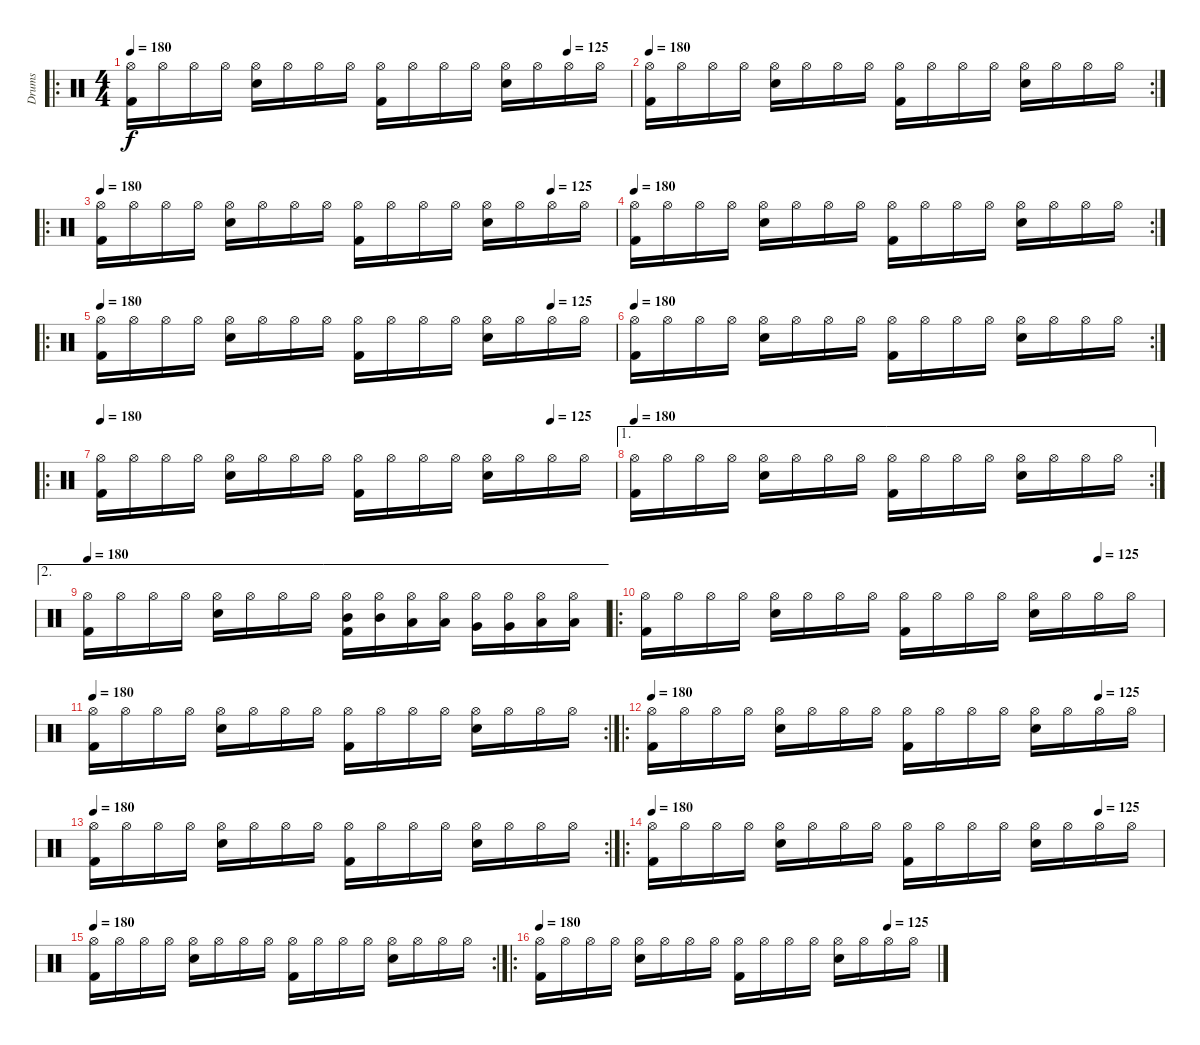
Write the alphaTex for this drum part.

\track ("Drums" "Drums") {instrument percussion}
\staff {score}
\articulation defaults
\ro
\ts (4 4)
\tempo 180
\tempo (125 0.875)
\clef neutral
\ks c
("Hi-Hat (open)" "Kick (hit) 2").16{dy f} "Hi-Hat (open)".16 "Hi-Hat (open)".16 "Hi-Hat (open)".16 ("Hi-Hat (open)" "Snare (hit) 2").16 "Hi-Hat (open)".16 "Hi-Hat (open)".16 "Hi-Hat (open)".16 ("Hi-Hat (open)" "Kick (hit) 2").16 "Hi-Hat (open)".16 "Hi-Hat (open)".16 "Hi-Hat (open)".16 ("Hi-Hat (open)" "Snare (hit) 2").16 "Hi-Hat (open)".16 "Hi-Hat (open)".16 "Hi-Hat (open)".16 |
\rc 2
\tempo 180
("Hi-Hat (open)" "Kick (hit) 2").16 "Hi-Hat (open)".16 "Hi-Hat (open)".16 "Hi-Hat (open)".16 ("Hi-Hat (open)" "Snare (hit) 2").16 "Hi-Hat (open)".16 "Hi-Hat (open)".16 "Hi-Hat (open)".16 ("Hi-Hat (open)" "Kick (hit) 2").16 "Hi-Hat (open)".16 "Hi-Hat (open)".16 "Hi-Hat (open)".16 ("Hi-Hat (open)" "Snare (hit) 2").16 "Hi-Hat (open)".16 "Hi-Hat (open)".16 "Hi-Hat (open)".16 |
\ro
\tempo 180
\tempo (125 0.875)
("Hi-Hat (open)" "Kick (hit) 2").16 "Hi-Hat (open)".16 "Hi-Hat (open)".16 "Hi-Hat (open)".16 ("Hi-Hat (open)" "Snare (hit) 2").16 "Hi-Hat (open)".16 "Hi-Hat (open)".16 "Hi-Hat (open)".16 ("Hi-Hat (open)" "Kick (hit) 2").16 "Hi-Hat (open)".16 "Hi-Hat (open)".16 "Hi-Hat (open)".16 ("Hi-Hat (open)" "Snare (hit) 2").16 "Hi-Hat (open)".16 "Hi-Hat (open)".16 "Hi-Hat (open)".16 |
\rc 2
\tempo 180
("Hi-Hat (open)" "Kick (hit) 2").16 "Hi-Hat (open)".16 "Hi-Hat (open)".16 "Hi-Hat (open)".16 ("Hi-Hat (open)" "Snare (hit) 2").16 "Hi-Hat (open)".16 "Hi-Hat (open)".16 "Hi-Hat (open)".16 ("Hi-Hat (open)" "Kick (hit) 2").16 "Hi-Hat (open)".16 "Hi-Hat (open)".16 "Hi-Hat (open)".16 ("Hi-Hat (open)" "Snare (hit) 2").16 "Hi-Hat (open)".16 "Hi-Hat (open)".16 "Hi-Hat (open)".16 |
\ro
\tempo 180
\tempo (125 0.875)
("Hi-Hat (open)" "Kick (hit) 2").16 "Hi-Hat (open)".16 "Hi-Hat (open)".16 "Hi-Hat (open)".16 ("Hi-Hat (open)" "Snare (hit) 2").16 "Hi-Hat (open)".16 "Hi-Hat (open)".16 "Hi-Hat (open)".16 ("Hi-Hat (open)" "Kick (hit) 2").16 "Hi-Hat (open)".16 "Hi-Hat (open)".16 "Hi-Hat (open)".16 ("Hi-Hat (open)" "Snare (hit) 2").16 "Hi-Hat (open)".16 "Hi-Hat (open)".16 "Hi-Hat (open)".16 |
\rc 2
\tempo 180
("Hi-Hat (open)" "Kick (hit) 2").16 "Hi-Hat (open)".16 "Hi-Hat (open)".16 "Hi-Hat (open)".16 ("Hi-Hat (open)" "Snare (hit) 2").16 "Hi-Hat (open)".16 "Hi-Hat (open)".16 "Hi-Hat (open)".16 ("Hi-Hat (open)" "Kick (hit) 2").16 "Hi-Hat (open)".16 "Hi-Hat (open)".16 "Hi-Hat (open)".16 ("Hi-Hat (open)" "Snare (hit) 2").16 "Hi-Hat (open)".16 "Hi-Hat (open)".16 "Hi-Hat (open)".16 |
\ro
\tempo 180
\tempo (125 0.875)
("Hi-Hat (open)" "Kick (hit) 2").16 "Hi-Hat (open)".16 "Hi-Hat (open)".16 "Hi-Hat (open)".16 ("Hi-Hat (open)" "Snare (hit) 2").16 "Hi-Hat (open)".16 "Hi-Hat (open)".16 "Hi-Hat (open)".16 ("Hi-Hat (open)" "Kick (hit) 2").16 "Hi-Hat (open)".16 "Hi-Hat (open)".16 "Hi-Hat (open)".16 ("Hi-Hat (open)" "Snare (hit) 2").16 "Hi-Hat (open)".16 "Hi-Hat (open)".16 "Hi-Hat (open)".16 |
\ae 1
\rc 2
\tempo 180
("Hi-Hat (open)" "Kick (hit) 2").16 "Hi-Hat (open)".16 "Hi-Hat (open)".16 "Hi-Hat (open)".16 ("Hi-Hat (open)" "Snare (hit) 2").16 "Hi-Hat (open)".16 "Hi-Hat (open)".16 "Hi-Hat (open)".16 ("Hi-Hat (open)" "Kick (hit) 2").16 "Hi-Hat (open)".16 "Hi-Hat (open)".16 "Hi-Hat (open)".16 ("Hi-Hat (open)" "Snare (hit) 2").16 "Hi-Hat (open)".16 "Hi-Hat (open)".16 "Hi-Hat (open)".16 |
\ae 2
\tempo 180
("Hi-Hat (open)" "Kick (hit) 2").16 "Hi-Hat (open)".16 "Hi-Hat (open)".16 "Hi-Hat (open)".16 ("Hi-Hat (open)" "Snare (hit) 2").16 "Hi-Hat (open)".16 "Hi-Hat (open)".16 "Hi-Hat (open)".16 ("Hi-Hat (open)" "Mid Tom (hit)" "Kick (hit) 2").16 ("Hi-Hat (open)" "Mid Tom (hit)").16 ("Hi-Hat (open)" "Low Tom (hit)").16 ("Hi-Hat (open)" "Low Tom (hit)").16 ("Hi-Hat (open)" "Very Low Tom (hit)").16 ("Hi-Hat (open)" "Very Low Tom (hit)").16 ("Hi-Hat (open)" "Low Floor Tom (hit)").16 ("Hi-Hat (open)" "Low Floor Tom (hit)").16 |
\ro
\tempo (125 0.875)
("Hi-Hat (open)" "Kick (hit) 2").16 "Hi-Hat (open)".16 "Hi-Hat (open)".16 "Hi-Hat (open)".16 ("Hi-Hat (open)" "Snare (hit) 2").16 "Hi-Hat (open)".16 "Hi-Hat (open)".16 "Hi-Hat (open)".16 ("Hi-Hat (open)" "Kick (hit) 2").16 "Hi-Hat (open)".16 "Hi-Hat (open)".16 "Hi-Hat (open)".16 ("Hi-Hat (open)" "Snare (hit) 2").16 "Hi-Hat (open)".16 "Hi-Hat (open)".16 "Hi-Hat (open)".16 |
\rc 2
\tempo 180
("Hi-Hat (open)" "Kick (hit) 2").16 "Hi-Hat (open)".16 "Hi-Hat (open)".16 "Hi-Hat (open)".16 ("Hi-Hat (open)" "Snare (hit) 2").16 "Hi-Hat (open)".16 "Hi-Hat (open)".16 "Hi-Hat (open)".16 ("Hi-Hat (open)" "Kick (hit) 2").16 "Hi-Hat (open)".16 "Hi-Hat (open)".16 "Hi-Hat (open)".16 ("Hi-Hat (open)" "Snare (hit) 2").16 "Hi-Hat (open)".16 "Hi-Hat (open)".16 "Hi-Hat (open)".16 |
\ro
\tempo 180
\tempo (125 0.875)
("Hi-Hat (open)" "Kick (hit) 2").16 "Hi-Hat (open)".16 "Hi-Hat (open)".16 "Hi-Hat (open)".16 ("Hi-Hat (open)" "Snare (hit) 2").16 "Hi-Hat (open)".16 "Hi-Hat (open)".16 "Hi-Hat (open)".16 ("Hi-Hat (open)" "Kick (hit) 2").16 "Hi-Hat (open)".16 "Hi-Hat (open)".16 "Hi-Hat (open)".16 ("Hi-Hat (open)" "Snare (hit) 2").16 "Hi-Hat (open)".16 "Hi-Hat (open)".16 "Hi-Hat (open)".16 |
\rc 2
\tempo 180
("Hi-Hat (open)" "Kick (hit) 2").16 "Hi-Hat (open)".16 "Hi-Hat (open)".16 "Hi-Hat (open)".16 ("Hi-Hat (open)" "Snare (hit) 2").16 "Hi-Hat (open)".16 "Hi-Hat (open)".16 "Hi-Hat (open)".16 ("Hi-Hat (open)" "Kick (hit) 2").16 "Hi-Hat (open)".16 "Hi-Hat (open)".16 "Hi-Hat (open)".16 ("Hi-Hat (open)" "Snare (hit) 2").16 "Hi-Hat (open)".16 "Hi-Hat (open)".16 "Hi-Hat (open)".16 |
\ro
\tempo 180
\tempo (125 0.875)
("Hi-Hat (open)" "Kick (hit) 2").16 "Hi-Hat (open)".16 "Hi-Hat (open)".16 "Hi-Hat (open)".16 ("Hi-Hat (open)" "Snare (hit) 2").16 "Hi-Hat (open)".16 "Hi-Hat (open)".16 "Hi-Hat (open)".16 ("Hi-Hat (open)" "Kick (hit) 2").16 "Hi-Hat (open)".16 "Hi-Hat (open)".16 "Hi-Hat (open)".16 ("Hi-Hat (open)" "Snare (hit) 2").16 "Hi-Hat (open)".16 "Hi-Hat (open)".16 "Hi-Hat (open)".16 |
\rc 2
\tempo 180
("Hi-Hat (open)" "Kick (hit) 2").16 "Hi-Hat (open)".16 "Hi-Hat (open)".16 "Hi-Hat (open)".16 ("Hi-Hat (open)" "Snare (hit) 2").16 "Hi-Hat (open)".16 "Hi-Hat (open)".16 "Hi-Hat (open)".16 ("Hi-Hat (open)" "Kick (hit) 2").16 "Hi-Hat (open)".16 "Hi-Hat (open)".16 "Hi-Hat (open)".16 ("Hi-Hat (open)" "Snare (hit) 2").16 "Hi-Hat (open)".16 "Hi-Hat (open)".16 "Hi-Hat (open)".16 |
\ro
\tempo 180
\tempo (125 0.875)
("Hi-Hat (open)" "Kick (hit) 2").16 "Hi-Hat (open)".16 "Hi-Hat (open)".16 "Hi-Hat (open)".16 ("Hi-Hat (open)" "Snare (hit) 2").16 "Hi-Hat (open)".16 "Hi-Hat (open)".16 "Hi-Hat (open)".16 ("Hi-Hat (open)" "Kick (hit) 2").16 "Hi-Hat (open)".16 "Hi-Hat (open)".16 "Hi-Hat (open)".16 ("Hi-Hat (open)" "Snare (hit) 2").16 "Hi-Hat (open)".16 "Hi-Hat (open)".16 "Hi-Hat (open)".16
